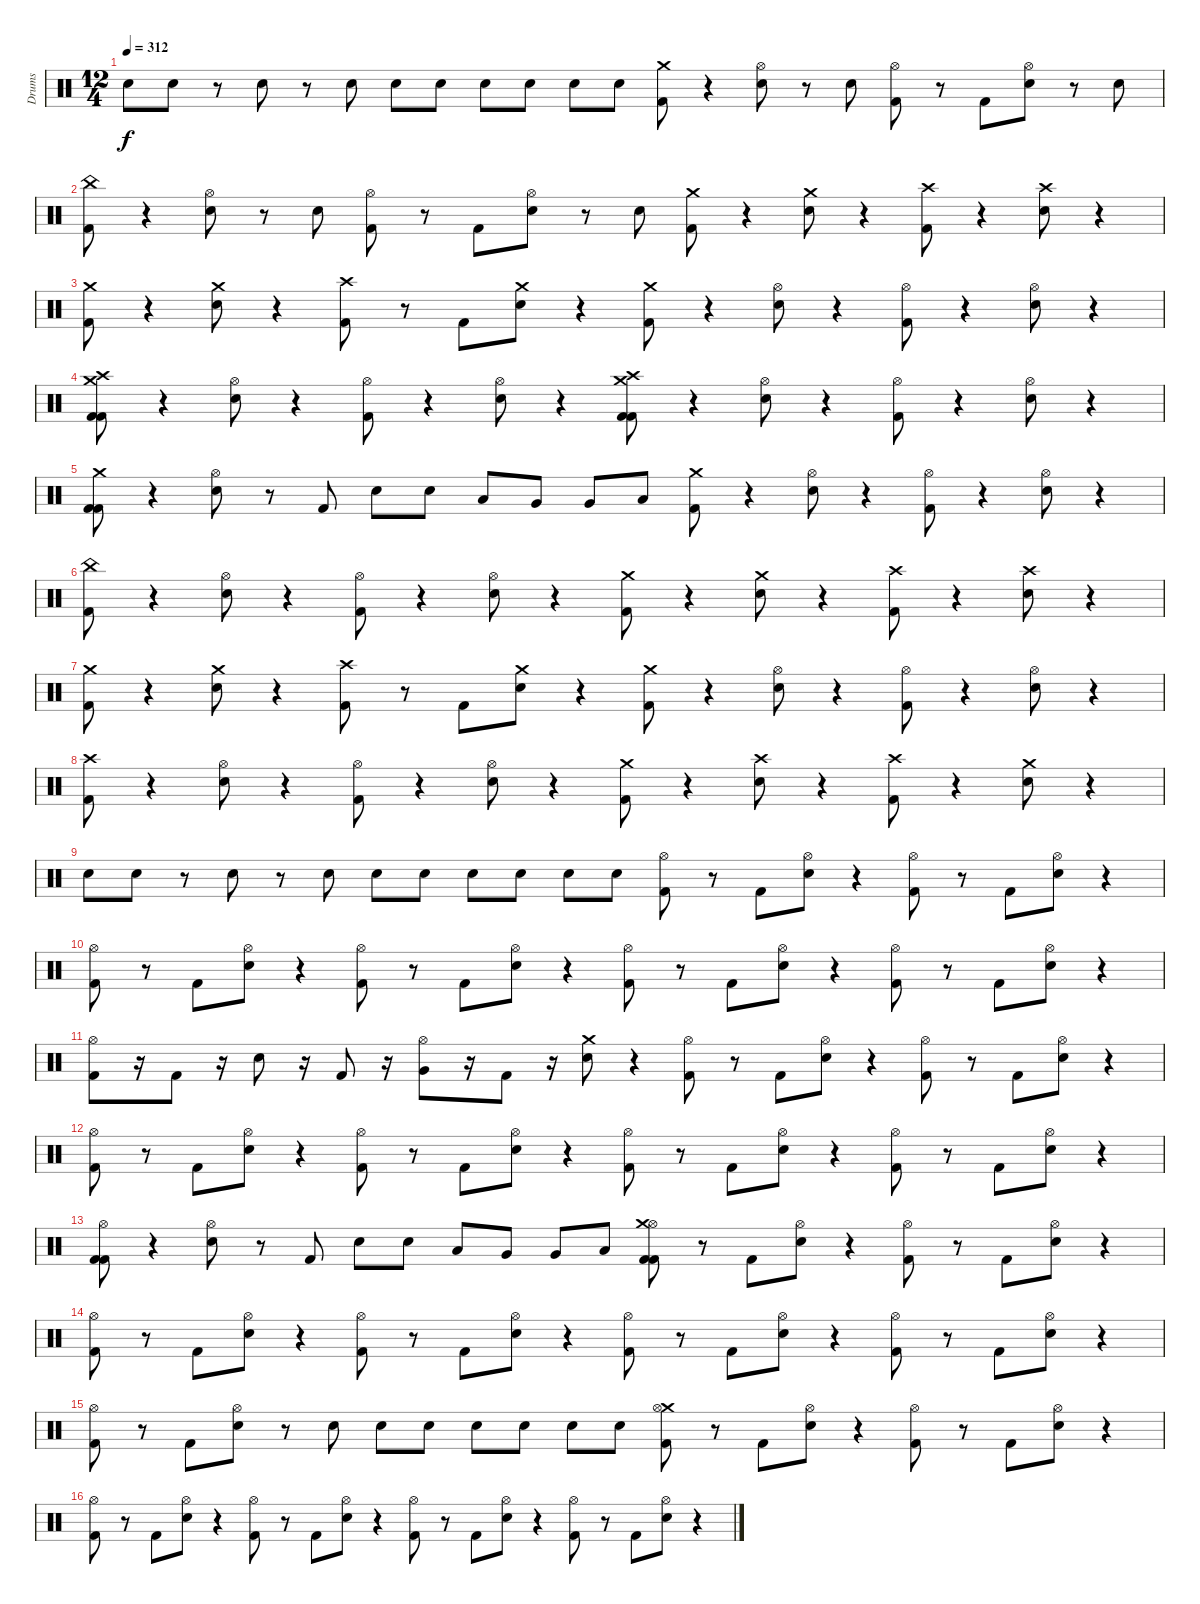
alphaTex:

\track ("Drums" "Drums") {instrument percussion}
\staff {score}
\articulation defaults
\ts (12 4)
\tempo 312
\clef neutral
\ks c "Electric Snare (hit)".8{dy f} "Electric Snare (hit)".8
r.8 "Electric Snare (hit)".8 r.8 "Electric Snare (hit)".8 "Electric Snare (hit)".8 "Electric Snare (hit)".8 "Electric Snare (hit)".8 "Electric Snare (hit)".8 "Electric Snare (hit)".8 "Electric Snare (hit)".8 ("Kick (hit) 2" "Crash medium (hit)").8 r.4 ("Hi-Hat (open)" "Electric Snare (hit)").8 r.8 "Electric Snare (hit)".8 ("Kick (hit) 2" "Hi-Hat (open)").8 r.8 "Kick (hit) 2".8 ("Electric Snare (hit)" "Hi-Hat (open)").8 r.8 "Electric Snare (hit)".8 |
("Kick (hit) 2" "China (hit)").8 r.4 ("Hi-Hat (open)" "Electric Snare (hit)").8 r.8 "Electric Snare (hit)".8 ("Kick (hit) 2" "Hi-Hat (open)").8 r.8 "Kick (hit) 2".8 ("Electric Snare (hit)" "Hi-Hat (open)").8 r.8 "Electric Snare (hit)".8 ("Kick (hit) 2" "Crash medium (hit)").8 r.4 ("Electric Snare (hit)" "Crash medium (hit)").8 r.4 ("Kick (hit) 2" "Crash high (hit)").8 r.4 ("Electric Snare (hit)" "Crash high (hit)").8 r.4 |
("Kick (hit) 2" "Crash medium (hit)").8 r.4 ("Electric Snare (hit)" "Crash medium (hit)").8 r.4 ("Kick (hit) 2" "Crash high (hit)").8 r.8 "Kick (hit) 2".8 ("Electric Snare (hit)" "Crash medium (hit)").8 r.4 ("Kick (hit) 2" "Crash medium (hit)").8 r.4 ("Hi-Hat (open)" "Electric Snare (hit)").8 r.4 ("Kick (hit) 2" "Hi-Hat (open)").8 r.4 ("Electric Snare (hit)" "Hi-Hat (open)").8 r.4 |
("Kick (hit) 2" "Crash high (hit)" "Kick (hit) 2" "Crash medium (hit)").8 r.4 ("Hi-Hat (open)" "Electric Snare (hit)").8 r.4 ("Kick (hit) 2" "Hi-Hat (open)").8 r.4 ("Electric Snare (hit)" "Hi-Hat (open)").8 r.4 ("Kick (hit) 2" "Crash high (hit)" "Kick (hit) 2" "Crash medium (hit)").8 r.4 ("Hi-Hat (open)" "Electric Snare (hit)").8 r.4 ("Kick (hit) 2" "Hi-Hat (open)").8 r.4 ("Electric Snare (hit)" "Hi-Hat (open)").8 r.4 |
("Kick (hit) 2" "Kick (hit) 2" "Crash medium (hit)").8 r.4 ("Hi-Hat (open)" "Electric Snare (hit)").8 r.8 "Kick (hit) 2".8 "Electric Snare (hit)".8 "Electric Snare (hit)".8 "Low Tom (hit)".8 "Very Low Tom (hit)".8 "Very Low Tom (hit)".8 "Low Floor Tom (hit)".8 ("Kick (hit) 2" "Crash medium (hit)").8 r.4 ("Hi-Hat (open)" "Electric Snare (hit)").8 r.4 ("Kick (hit) 2" "Hi-Hat (open)").8 r.4 ("Electric Snare (hit)" "Hi-Hat (open)").8 r.4 |
("Kick (hit) 2" "China (hit)").8 r.4 ("Hi-Hat (open)" "Electric Snare (hit)").8 r.4 ("Kick (hit) 2" "Hi-Hat (open)").8 r.4 ("Electric Snare (hit)" "Hi-Hat (open)").8 r.4 ("Kick (hit) 2" "Crash medium (hit)").8 r.4 ("Electric Snare (hit)" "Crash medium (hit)").8 r.4 ("Kick (hit) 2" "Crash high (hit)").8 r.4 ("Electric Snare (hit)" "Crash high (hit)").8 r.4 |
("Kick (hit) 2" "Crash medium (hit)").8 r.4 ("Electric Snare (hit)" "Crash medium (hit)").8 r.4 ("Kick (hit) 2" "Crash high (hit)").8 r.8 "Kick (hit) 2".8 ("Electric Snare (hit)" "Crash medium (hit)").8 r.4 ("Kick (hit) 2" "Crash medium (hit)").8 r.4 ("Hi-Hat (open)" "Electric Snare (hit)").8 r.4 ("Kick (hit) 2" "Hi-Hat (open)").8 r.4 ("Electric Snare (hit)" "Hi-Hat (open)").8 r.4 |
("Kick (hit) 2" "Crash high (hit)").8 r.4 ("Hi-Hat (open)" "Electric Snare (hit)").8 r.4 ("Kick (hit) 2" "Hi-Hat (open)").8 r.4 ("Electric Snare (hit)" "Hi-Hat (open)").8 r.4 ("Kick (hit) 2" "Crash medium (hit)").8 r.4 ("Electric Snare (hit)" "Crash high (hit)").8 r.4 ("Kick (hit) 2" "Crash high (hit)").8 r.4 ("Electric Snare (hit)" "Crash medium (hit)").8 r.4 |
"Electric Snare (hit)".8 "Electric Snare (hit)".8 r.8 "Electric Snare (hit)".8 r.8 "Electric Snare (hit)".8 "Electric Snare (hit)".8 "Electric Snare (hit)".8 "Electric Snare (hit)".8 "Electric Snare (hit)".8 "Electric Snare (hit)".8 "Electric Snare (hit)".8 ("Kick (hit) 2" "Hi-Hat (open)").8 r.8 "Kick (hit) 2".8 ("Hi-Hat (open)" "Electric Snare (hit)").8 r.4 ("Hi-Hat (open)" "Kick (hit) 2").8 r.8 "Kick (hit) 2".8 ("Electric Snare (hit)" "Hi-Hat (open)").8 r.4 |
("Hi-Hat (open)" "Kick (hit) 2").8 r.8 "Kick (hit) 2".8 ("Hi-Hat (open)" "Electric Snare (hit)").8 r.4 ("Hi-Hat (open)" "Kick (hit) 2").8 r.8 "Kick (hit) 2".8 ("Hi-Hat (open)" "Electric Snare (hit)").8 r.4 ("Kick (hit) 2" "Hi-Hat (open)").8 r.8 "Kick (hit) 2".8 ("Hi-Hat (open)" "Electric Snare (hit)").8 r.4 ("Hi-Hat (open)" "Kick (hit) 2").8 r.8 "Kick (hit) 2".8 ("Electric Snare (hit)" "Hi-Hat (open)").8 r.4 |
("Hi-Hat (open)" "Kick (hit) 2").8 r.16 "Kick (hit) 2".8 r.16 "Electric Snare (hit)".8 r.16 "Kick (hit) 2".8 r.16 ("Hi-Hat (open)" "Very Low Tom (hit)").8 r.16 "Kick (hit) 2".8 r.16 ("Crash medium (hit)" "Electric Snare (hit)").8 r.4 ("Kick (hit) 2" "Hi-Hat (open)").8 r.8 "Kick (hit) 2".8 ("Hi-Hat (open)" "Electric Snare (hit)").8 r.4 ("Hi-Hat (open)" "Kick (hit) 2").8 r.8 "Kick (hit) 2".8 ("Electric Snare (hit)" "Hi-Hat (open)").8 r.4 |
("Hi-Hat (open)" "Kick (hit) 2").8 r.8 "Kick (hit) 2".8 ("Hi-Hat (open)" "Electric Snare (hit)").8 r.4 ("Hi-Hat (open)" "Kick (hit) 2").8 r.8 "Kick (hit) 2".8 ("Hi-Hat (open)" "Electric Snare (hit)").8 r.4 ("Kick (hit) 2" "Hi-Hat (open)").8 r.8 "Kick (hit) 2".8 ("Hi-Hat (open)" "Electric Snare (hit)").8 r.4 ("Hi-Hat (open)" "Kick (hit) 2").8 r.8 "Kick (hit) 2".8 ("Electric Snare (hit)" "Hi-Hat (open)").8 r.4 |
("Hi-Hat (open)" "Kick (hit) 2" "Kick (hit) 2").8 r.4 ("Electric Snare (hit)" "Hi-Hat (open)").8 r.8 "Kick (hit) 2".8 "Electric Snare (hit)".8 "Electric Snare (hit)".8 "Low Tom (hit)".8 "Very Low Tom (hit)".8 "Very Low Tom (hit)".8 "Low Floor Tom (hit)".8 ("Kick (hit) 2" "Kick (hit) 2" "Hi-Hat (open)" "Crash medium (hit)").8 r.8 "Kick (hit) 2".8 ("Hi-Hat (open)" "Electric Snare (hit)").8 r.4 ("Kick (hit) 2" "Hi-Hat (open)").8 r.8 "Kick (hit) 2".8 ("Hi-Hat (open)" "Electric Snare (hit)").8 r.4 |
("Kick (hit) 2" "Hi-Hat (open)").8 r.8 "Kick (hit) 2".8 ("Hi-Hat (open)" "Electric Snare (hit)").8 r.4 ("Kick (hit) 2" "Hi-Hat (open)").8 r.8 "Kick (hit) 2".8 ("Hi-Hat (open)" "Electric Snare (hit)").8 r.4 ("Kick (hit) 2" "Hi-Hat (open)").8 r.8 "Kick (hit) 2".8 ("Electric Snare (hit)" "Hi-Hat (open)").8 r.4 ("Hi-Hat (open)" "Kick (hit) 2").8 r.8 "Kick (hit) 2".8 ("Hi-Hat (open)" "Electric Snare (hit)").8 r.4 |
("Hi-Hat (open)" "Kick (hit) 2").8 r.8 "Kick (hit) 2".8 ("Electric Snare (hit)" "Hi-Hat (open)").8 r.8 "Electric Snare (hit)".8 "Electric Snare (hit)".8 "Electric Snare (hit)".8 "Electric Snare (hit)".8 "Electric Snare (hit)".8 "Electric Snare (hit)".8 "Electric Snare (hit)".8 ("Kick (hit) 2" "Crash medium (hit)" "Hi-Hat (open)").8 r.8 "Kick (hit) 2".8 ("Electric Snare (hit)" "Hi-Hat (open)").8 r.4 ("Kick (hit) 2" "Hi-Hat (open)").8 r.8 "Kick (hit) 2".8 ("Electric Snare (hit)" "Hi-Hat (open)").8 r.4 |
("Hi-Hat (open)" "Kick (hit) 2").8 r.8 "Kick (hit) 2".8 ("Hi-Hat (open)" "Electric Snare (hit)").8 r.4 ("Hi-Hat (open)" "Kick (hit) 2").8 r.8 "Kick (hit) 2".8 ("Hi-Hat (open)" "Electric Snare (hit)").8 r.4 ("Kick (hit) 2" "Hi-Hat (open)").8 r.8 "Kick (hit) 2".8 ("Hi-Hat (open)" "Electric Snare (hit)").8 r.4 ("Kick (hit) 2" "Hi-Hat (open)").8 r.8 "Kick (hit) 2".8 ("Electric Snare (hit)" "Hi-Hat (open)").8 r.4
